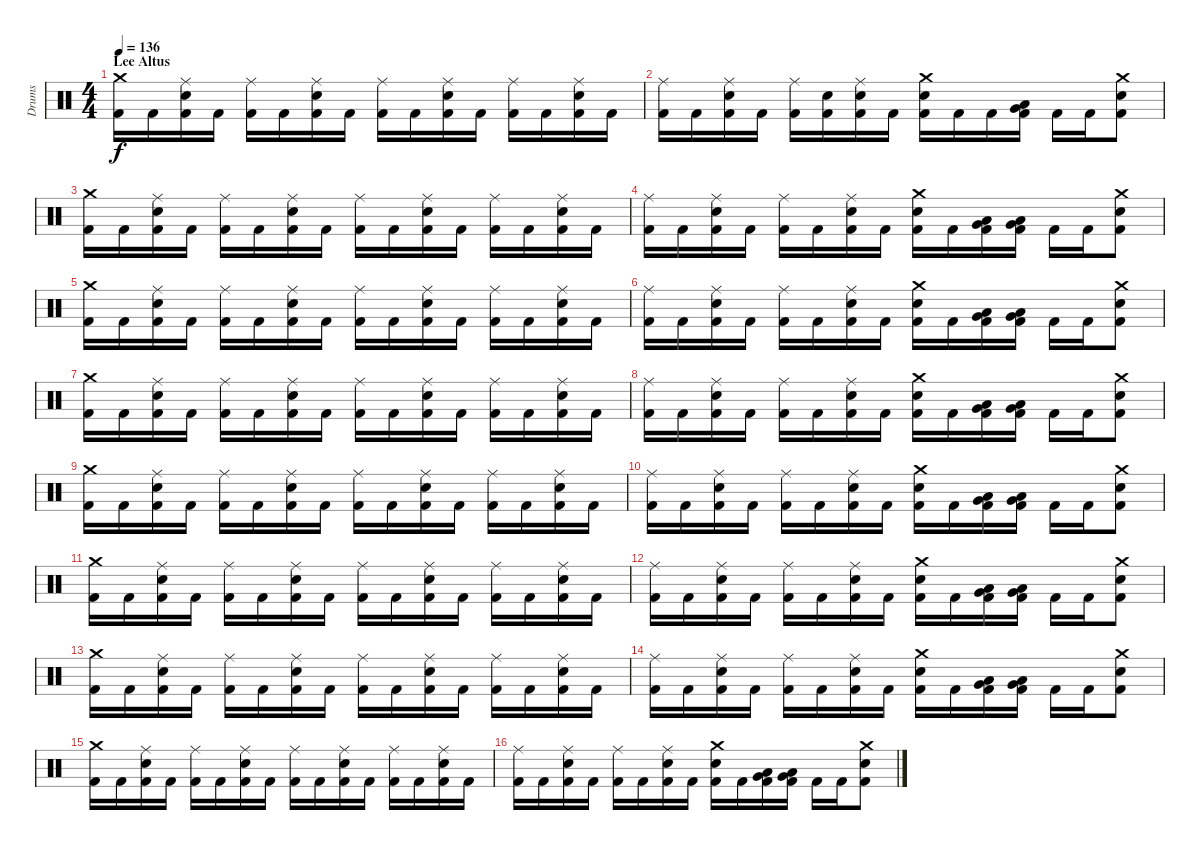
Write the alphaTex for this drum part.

\track ("Drums" "Drums") {instrument percussion}
\staff {score}
\articulation defaults
\ts (4 4)
\section ("" "Lee Altus")
\tempo 136
\clef neutral
\ks c
("Crash medium (hit)" "Kick (hit) 2").16{dy f} "Kick (hit) 2".16 ("Ride (middle)" "Electric Snare (hit)" "Kick (hit) 2").16 "Kick (hit) 2".16 ("Ride (middle)" "Kick (hit) 2").16 "Kick (hit) 2".16 ("Ride (middle)" "Electric Snare (hit)" "Kick (hit) 2").16 "Kick (hit) 2".16 ("Ride (middle)" "Kick (hit) 2").16 "Kick (hit) 2".16 ("Ride (middle)" "Electric Snare (hit)" "Kick (hit) 2").16 "Kick (hit) 2".16 ("Ride (middle)" "Kick (hit) 2").16 "Kick (hit) 2".16 ("Ride (middle)" "Electric Snare (hit)" "Kick (hit) 2").16 "Kick (hit) 2".16 |
("Ride (middle)" "Kick (hit) 2").16 "Kick (hit) 2".16 ("Ride (middle)" "Electric Snare (hit)" "Kick (hit) 2").16 "Kick (hit) 2".16 ("Ride (middle)" "Kick (hit) 2").16 ("Electric Snare (hit)" "Kick (hit) 2").16 ("Ride (middle)" "Electric Snare (hit)" "Kick (hit) 2").16 "Kick (hit) 2".16 ("Crash medium (hit)" "Electric Snare (hit)" "Kick (hit) 2").16 "Kick (hit) 2".16 "Kick (hit) 2".16 ("Very Low Tom (hit)" "Low Floor Tom (hit)" "Kick (hit) 2").16 "Kick (hit) 2".16 "Kick (hit) 2".16 ("Crash medium (hit)" "Electric Snare (hit)" "Kick (hit) 2").8 |
("Crash medium (hit)" "Kick (hit) 2").16 "Kick (hit) 2".16 ("Ride (middle)" "Electric Snare (hit)" "Kick (hit) 2").16 "Kick (hit) 2".16 ("Ride (middle)" "Kick (hit) 2").16 "Kick (hit) 2".16 ("Ride (middle)" "Electric Snare (hit)" "Kick (hit) 2").16 "Kick (hit) 2".16 ("Ride (middle)" "Kick (hit) 2").16 "Kick (hit) 2".16 ("Ride (middle)" "Electric Snare (hit)" "Kick (hit) 2").16 "Kick (hit) 2".16 ("Ride (middle)" "Kick (hit) 2").16 "Kick (hit) 2".16 ("Ride (middle)" "Electric Snare (hit)" "Kick (hit) 2").16 "Kick (hit) 2".16 |
("Ride (middle)" "Kick (hit) 2").16 "Kick (hit) 2".16 ("Ride (middle)" "Electric Snare (hit)" "Kick (hit) 2").16 "Kick (hit) 2".16 ("Ride (middle)" "Kick (hit) 2").16 "Kick (hit) 2".16 ("Ride (middle)" "Electric Snare (hit)" "Kick (hit) 2").16 "Kick (hit) 2".16 ("Crash medium (hit)" "Electric Snare (hit)" "Kick (hit) 2").16 "Kick (hit) 2".16 ("Very Low Tom (hit)" "Low Floor Tom (hit)" "Kick (hit) 2").16 ("Very Low Tom (hit)" "Low Floor Tom (hit)" "Kick (hit) 2").16 "Kick (hit) 2".16 "Kick (hit) 2".16 ("Crash medium (hit)" "Electric Snare (hit)" "Kick (hit) 2").8 |
("Crash medium (hit)" "Kick (hit) 2").16 "Kick (hit) 2".16 ("Ride (middle)" "Electric Snare (hit)" "Kick (hit) 2").16 "Kick (hit) 2".16 ("Ride (middle)" "Kick (hit) 2").16 "Kick (hit) 2".16 ("Ride (middle)" "Electric Snare (hit)" "Kick (hit) 2").16 "Kick (hit) 2".16 ("Ride (middle)" "Kick (hit) 2").16 "Kick (hit) 2".16 ("Ride (middle)" "Electric Snare (hit)" "Kick (hit) 2").16 "Kick (hit) 2".16 ("Ride (middle)" "Kick (hit) 2").16 "Kick (hit) 2".16 ("Ride (middle)" "Electric Snare (hit)" "Kick (hit) 2").16 "Kick (hit) 2".16 |
("Ride (middle)" "Kick (hit) 2").16 "Kick (hit) 2".16 ("Ride (middle)" "Electric Snare (hit)" "Kick (hit) 2").16 "Kick (hit) 2".16 ("Ride (middle)" "Kick (hit) 2").16 "Kick (hit) 2".16 ("Ride (middle)" "Electric Snare (hit)" "Kick (hit) 2").16 "Kick (hit) 2".16 ("Crash medium (hit)" "Electric Snare (hit)" "Kick (hit) 2").16 "Kick (hit) 2".16 ("Very Low Tom (hit)" "Low Floor Tom (hit)" "Kick (hit) 2").16 ("Very Low Tom (hit)" "Low Floor Tom (hit)" "Kick (hit) 2").16 "Kick (hit) 2".16 "Kick (hit) 2".16 ("Crash medium (hit)" "Electric Snare (hit)" "Kick (hit) 2").8 |
("Crash medium (hit)" "Kick (hit) 2").16 "Kick (hit) 2".16 ("Ride (middle)" "Electric Snare (hit)" "Kick (hit) 2").16 "Kick (hit) 2".16 ("Ride (middle)" "Kick (hit) 2").16 "Kick (hit) 2".16 ("Ride (middle)" "Electric Snare (hit)" "Kick (hit) 2").16 "Kick (hit) 2".16 ("Ride (middle)" "Kick (hit) 2").16 "Kick (hit) 2".16 ("Ride (middle)" "Electric Snare (hit)" "Kick (hit) 2").16 "Kick (hit) 2".16 ("Ride (middle)" "Kick (hit) 2").16 "Kick (hit) 2".16 ("Ride (middle)" "Electric Snare (hit)" "Kick (hit) 2").16 "Kick (hit) 2".16 |
("Ride (middle)" "Kick (hit) 2").16 "Kick (hit) 2".16 ("Ride (middle)" "Electric Snare (hit)" "Kick (hit) 2").16 "Kick (hit) 2".16 ("Ride (middle)" "Kick (hit) 2").16 "Kick (hit) 2".16 ("Ride (middle)" "Electric Snare (hit)" "Kick (hit) 2").16 "Kick (hit) 2".16 ("Crash medium (hit)" "Electric Snare (hit)" "Kick (hit) 2").16 "Kick (hit) 2".16 ("Very Low Tom (hit)" "Low Floor Tom (hit)" "Kick (hit) 2").16 ("Very Low Tom (hit)" "Low Floor Tom (hit)" "Kick (hit) 2").16 "Kick (hit) 2".16 "Kick (hit) 2".16 ("Crash medium (hit)" "Electric Snare (hit)" "Kick (hit) 2").8 |
("Crash medium (hit)" "Kick (hit) 2").16 "Kick (hit) 2".16 ("Ride (middle)" "Electric Snare (hit)" "Kick (hit) 2").16 "Kick (hit) 2".16 ("Ride (middle)" "Kick (hit) 2").16 "Kick (hit) 2".16 ("Ride (middle)" "Electric Snare (hit)" "Kick (hit) 2").16 "Kick (hit) 2".16 ("Ride (middle)" "Kick (hit) 2").16 "Kick (hit) 2".16 ("Ride (middle)" "Electric Snare (hit)" "Kick (hit) 2").16 "Kick (hit) 2".16 ("Ride (middle)" "Kick (hit) 2").16 "Kick (hit) 2".16 ("Ride (middle)" "Electric Snare (hit)" "Kick (hit) 2").16 "Kick (hit) 2".16 |
("Ride (middle)" "Kick (hit) 2").16 "Kick (hit) 2".16 ("Ride (middle)" "Electric Snare (hit)" "Kick (hit) 2").16 "Kick (hit) 2".16 ("Ride (middle)" "Kick (hit) 2").16 "Kick (hit) 2".16 ("Ride (middle)" "Electric Snare (hit)" "Kick (hit) 2").16 "Kick (hit) 2".16 ("Crash medium (hit)" "Electric Snare (hit)" "Kick (hit) 2").16 "Kick (hit) 2".16 ("Very Low Tom (hit)" "Low Floor Tom (hit)" "Kick (hit) 2").16 ("Very Low Tom (hit)" "Low Floor Tom (hit)" "Kick (hit) 2").16 "Kick (hit) 2".16 "Kick (hit) 2".16 ("Crash medium (hit)" "Electric Snare (hit)" "Kick (hit) 2").8 |
("Crash medium (hit)" "Kick (hit) 2").16 "Kick (hit) 2".16 ("Ride (middle)" "Electric Snare (hit)" "Kick (hit) 2").16 "Kick (hit) 2".16 ("Ride (middle)" "Kick (hit) 2").16 "Kick (hit) 2".16 ("Ride (middle)" "Electric Snare (hit)" "Kick (hit) 2").16 "Kick (hit) 2".16 ("Ride (middle)" "Kick (hit) 2").16 "Kick (hit) 2".16 ("Ride (middle)" "Electric Snare (hit)" "Kick (hit) 2").16 "Kick (hit) 2".16 ("Ride (middle)" "Kick (hit) 2").16 "Kick (hit) 2".16 ("Ride (middle)" "Electric Snare (hit)" "Kick (hit) 2").16 "Kick (hit) 2".16 |
("Ride (middle)" "Kick (hit) 2").16 "Kick (hit) 2".16 ("Ride (middle)" "Electric Snare (hit)" "Kick (hit) 2").16 "Kick (hit) 2".16 ("Ride (middle)" "Kick (hit) 2").16 "Kick (hit) 2".16 ("Ride (middle)" "Electric Snare (hit)" "Kick (hit) 2").16 "Kick (hit) 2".16 ("Crash medium (hit)" "Electric Snare (hit)" "Kick (hit) 2").16 "Kick (hit) 2".16 ("Very Low Tom (hit)" "Low Floor Tom (hit)" "Kick (hit) 2").16 ("Very Low Tom (hit)" "Low Floor Tom (hit)" "Kick (hit) 2").16 "Kick (hit) 2".16 "Kick (hit) 2".16 ("Crash medium (hit)" "Electric Snare (hit)" "Kick (hit) 2").8 |
("Crash medium (hit)" "Kick (hit) 2").16 "Kick (hit) 2".16 ("Ride (middle)" "Electric Snare (hit)" "Kick (hit) 2").16 "Kick (hit) 2".16 ("Ride (middle)" "Kick (hit) 2").16 "Kick (hit) 2".16 ("Ride (middle)" "Electric Snare (hit)" "Kick (hit) 2").16 "Kick (hit) 2".16 ("Ride (middle)" "Kick (hit) 2").16 "Kick (hit) 2".16 ("Ride (middle)" "Electric Snare (hit)" "Kick (hit) 2").16 "Kick (hit) 2".16 ("Ride (middle)" "Kick (hit) 2").16 "Kick (hit) 2".16 ("Ride (middle)" "Electric Snare (hit)" "Kick (hit) 2").16 "Kick (hit) 2".16 |
("Ride (middle)" "Kick (hit) 2").16 "Kick (hit) 2".16 ("Ride (middle)" "Electric Snare (hit)" "Kick (hit) 2").16 "Kick (hit) 2".16 ("Ride (middle)" "Kick (hit) 2").16 "Kick (hit) 2".16 ("Ride (middle)" "Electric Snare (hit)" "Kick (hit) 2").16 "Kick (hit) 2".16 ("Crash medium (hit)" "Electric Snare (hit)" "Kick (hit) 2").16 "Kick (hit) 2".16 ("Very Low Tom (hit)" "Low Floor Tom (hit)" "Kick (hit) 2").16 ("Very Low Tom (hit)" "Low Floor Tom (hit)" "Kick (hit) 2").16 "Kick (hit) 2".16 "Kick (hit) 2".16 ("Crash medium (hit)" "Electric Snare (hit)" "Kick (hit) 2").8 |
("Crash medium (hit)" "Kick (hit) 2").16 "Kick (hit) 2".16 ("Ride (middle)" "Electric Snare (hit)" "Kick (hit) 2").16 "Kick (hit) 2".16 ("Ride (middle)" "Kick (hit) 2").16 "Kick (hit) 2".16 ("Ride (middle)" "Electric Snare (hit)" "Kick (hit) 2").16 "Kick (hit) 2".16 ("Ride (middle)" "Kick (hit) 2").16 "Kick (hit) 2".16 ("Ride (middle)" "Electric Snare (hit)" "Kick (hit) 2").16 "Kick (hit) 2".16 ("Ride (middle)" "Kick (hit) 2").16 "Kick (hit) 2".16 ("Ride (middle)" "Electric Snare (hit)" "Kick (hit) 2").16 "Kick (hit) 2".16 |
("Ride (middle)" "Kick (hit) 2").16 "Kick (hit) 2".16 ("Ride (middle)" "Electric Snare (hit)" "Kick (hit) 2").16 "Kick (hit) 2".16 ("Ride (middle)" "Kick (hit) 2").16 "Kick (hit) 2".16 ("Ride (middle)" "Electric Snare (hit)" "Kick (hit) 2").16 "Kick (hit) 2".16 ("Crash medium (hit)" "Electric Snare (hit)" "Kick (hit) 2").16 "Kick (hit) 2".16 ("Very Low Tom (hit)" "Low Floor Tom (hit)" "Kick (hit) 2").16 ("Very Low Tom (hit)" "Low Floor Tom (hit)" "Kick (hit) 2").16 "Kick (hit) 2".16 "Kick (hit) 2".16 ("Crash medium (hit)" "Electric Snare (hit)" "Kick (hit) 2").8
